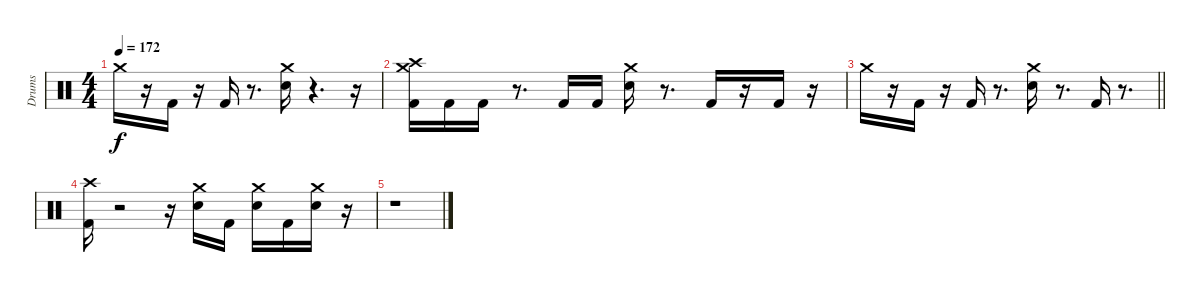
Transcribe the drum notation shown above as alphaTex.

\track ("Drums" "Drums") {instrument percussion}
\staff {score}
\articulation defaults
\ts (4 4)
\tempo 172
\clef neutral
\ks c "Crash medium (hit)".16{dy f}
r.16 "Kick (hit) 2".16 r.16 "Kick (hit) 2".16 r.8{d} ("Snare (hit) 2" "Crash medium (hit)").16 r.4{d} r.16 |
("Kick (hit) 2" "Crash medium (hit)" "Crash high (hit)").16 "Kick (hit) 2".16 "Kick (hit) 2".16 r.8{d} "Kick (hit) 2".16 "Kick (hit) 2".16 ("Snare (hit) 2" "Crash medium (hit)").16 r.8{d} "Kick (hit) 2".16 r.16 "Kick (hit) 2".16 r.16 |
\barLineRight lightlight "Crash medium (hit)".16
r.16 "Kick (hit) 2".16 r.16 "Kick (hit) 2".16 r.8{d} ("Snare (hit) 2" "Crash medium (hit)").16 r.8{d} "Kick (hit) 2".16 r.8{d} |
\section ("" " ")
("Kick (hit) 2" "Crash high (hit)").16 r.2 r.16 ("Snare (hit) 2" "Crash medium (hit)").16 "Kick (hit) 2".16 ("Snare (hit) 2" "Crash medium (hit)").16 "Kick (hit) 2".16 ("Snare (hit) 2" "Crash medium (hit)").16 r.16 |
r.1
